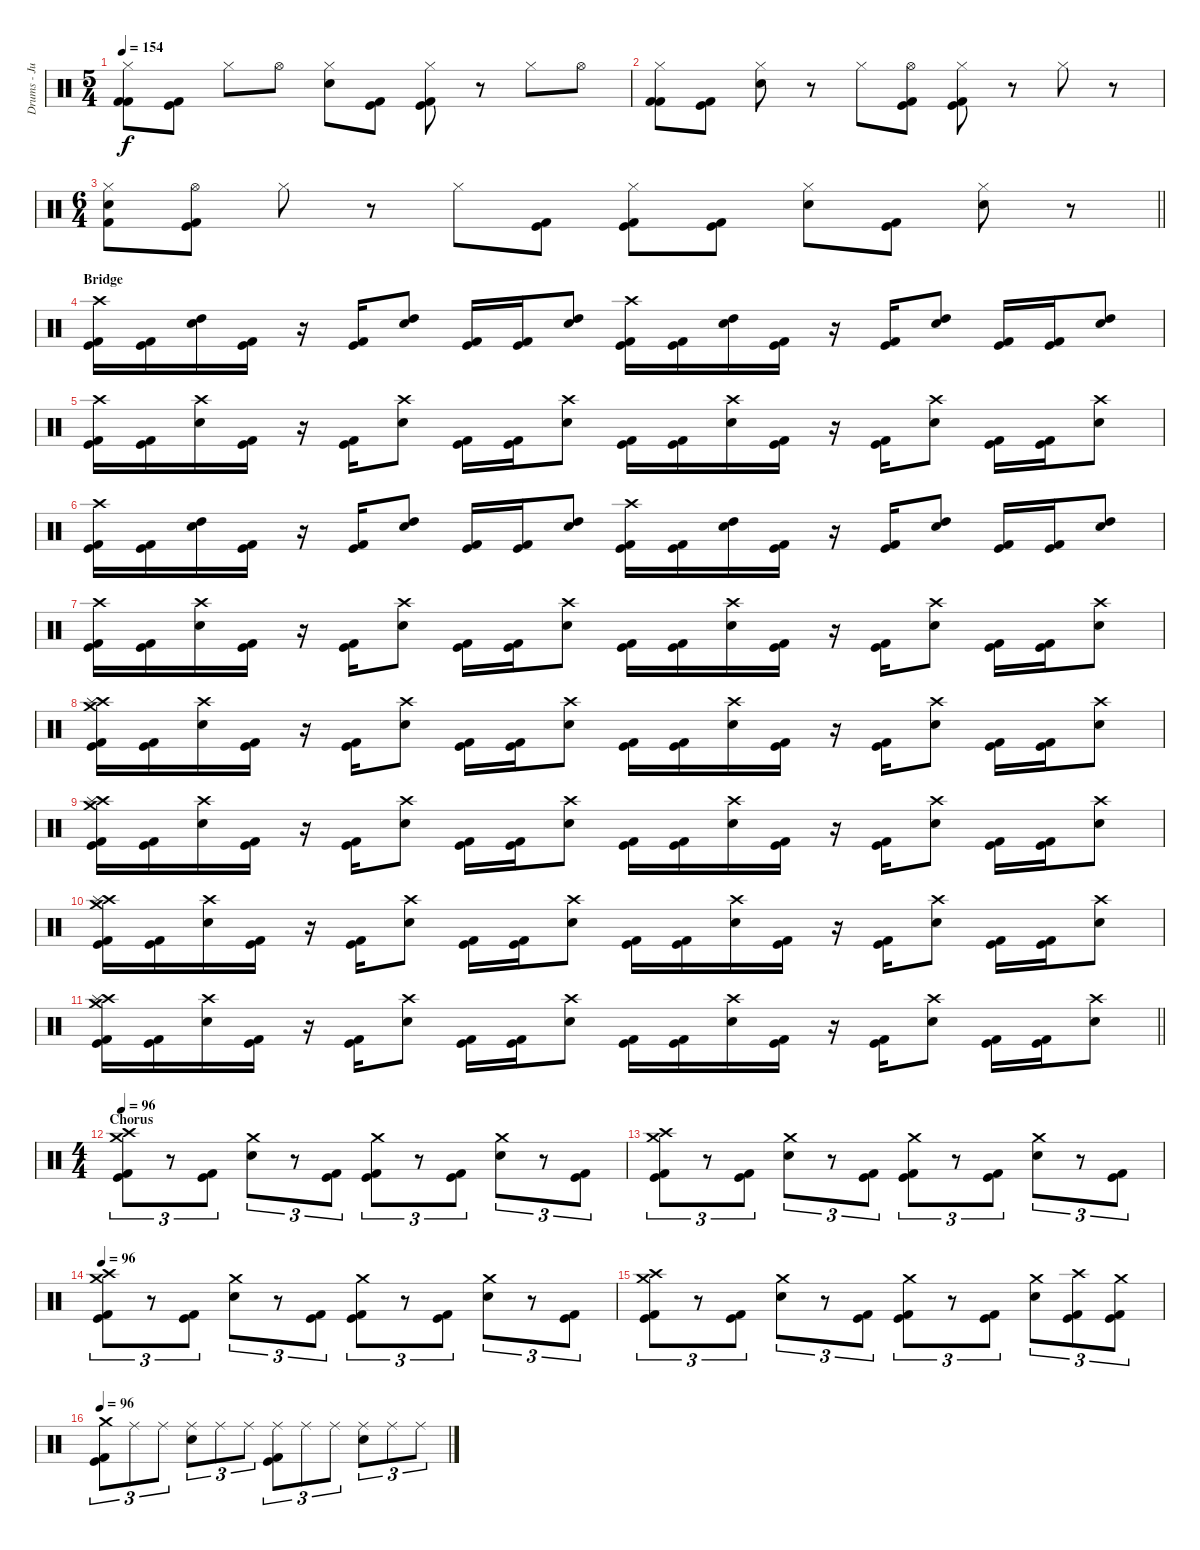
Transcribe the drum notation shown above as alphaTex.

\track ("Drums - Justin Foley" "Drums - Ju") {instrument percussion}
\staff {score}
\articulation defaults
\ts (5 4)
\tempo 154
\clef neutral
\ks c
("Hi-Hat (closed)" "Kick (hit) 2" "Kick (hit) 2").8{dy f} ("Kick (hit) 2" "Kick (hit)").8 "Hi-Hat (closed)".8 "Hi-Hat (open)".8 ("Hi-Hat (closed)" "Snare (hit) 2").8 ("Kick (hit) 2" "Kick (hit)").8 ("Hi-Hat (closed)" "Kick (hit) 2" "Kick (hit)").8 r.8 "Hi-Hat (closed)".8 "Hi-Hat (open)".8 |
("Hi-Hat (closed)" "Kick (hit) 2" "Kick (hit) 2").8 ("Kick (hit) 2" "Kick (hit)").8 ("Hi-Hat (closed)" "Snare (hit) 2").8 r.8 "Hi-Hat (closed)".8 ("Hi-Hat (open)" "Kick (hit) 2" "Kick (hit)").8 ("Hi-Hat (closed)" "Kick (hit) 2" "Kick (hit)").8 r.8 "Hi-Hat (closed)".8 r.8 |
\ts (6 4)
\barLineRight lightlight
("Hi-Hat (closed)" "Snare (hit) 2" "Kick (hit) 2").8 ("Hi-Hat (open)" "Kick (hit) 2" "Kick (hit)").8 "Hi-Hat (closed)".8 r.8 "Hi-Hat (closed)".8 ("Kick (hit) 2" "Kick (hit)").8 ("Hi-Hat (closed)" "Kick (hit) 2" "Kick (hit)").8 ("Kick (hit) 2" "Kick (hit)").8 ("Hi-Hat (closed)" "Snare (hit) 2").8 ("Kick (hit) 2" "Kick (hit)").8 ("Hi-Hat (closed)" "Snare (hit) 2").8 r.8 |
\section ("" "Bridge")
("Crash high (hit)" "Kick (hit) 2" "Kick (hit)").16 ("Kick (hit) 2" "Kick (hit)").16 ("Snare (hit) 2" "High Tom (hit)").16{bd 60} ("Kick (hit) 2" "Kick (hit)").16 r.16 ("Kick (hit) 2" "Kick (hit)").16 ("Snare (hit) 2" "High Tom (hit)").8{bu 60} ("Kick (hit) 2" "Kick (hit)").16 ("Kick (hit) 2" "Kick (hit)").16 ("Snare (hit) 2" "High Tom (hit)").8{bd 60} ("Crash high (hit)" "Kick (hit) 2" "Kick (hit)").16 ("Kick (hit) 2" "Kick (hit)").16 ("Snare (hit) 2" "High Tom (hit)").16{bu 60} ("Kick (hit) 2" "Kick (hit)").16 r.16 ("Kick (hit) 2" "Kick (hit)").16 ("Snare (hit) 2" "High Tom (hit)").8{bd 60} ("Kick (hit) 2" "Kick (hit)").16 ("Kick (hit) 2" "Kick (hit)").16 ("Snare (hit) 2" "High Tom (hit)").8{bu 60} |
("Crash high (hit)" "Kick (hit) 2" "Kick (hit)").16 ("Kick (hit) 2" "Kick (hit)").16 ("Crash high (hit)" "Snare (hit) 2").16 ("Kick (hit) 2" "Kick (hit)").16 r.16 ("Kick (hit) 2" "Kick (hit)").16 ("Crash high (hit)" "Snare (hit) 2").8 ("Kick (hit) 2" "Kick (hit)").16 ("Kick (hit) 2" "Kick (hit)").16 ("Crash high (hit)" "Snare (hit) 2").8 ("Kick (hit) 2" "Kick (hit)").16 ("Kick (hit) 2" "Kick (hit)").16 ("Crash high (hit)" "Snare (hit) 2").16 ("Kick (hit) 2" "Kick (hit)").16 r.16 ("Kick (hit) 2" "Kick (hit)").16 ("Crash high (hit)" "Snare (hit) 2").8 ("Kick (hit) 2" "Kick (hit)").16 ("Kick (hit) 2" "Kick (hit)").16 ("Crash high (hit)" "Snare (hit) 2").8 |
("Crash high (hit)" "Kick (hit) 2" "Kick (hit)").16 ("Kick (hit) 2" "Kick (hit)").16 ("Snare (hit) 2" "High Tom (hit)").16{bd 60} ("Kick (hit) 2" "Kick (hit)").16 r.16 ("Kick (hit) 2" "Kick (hit)").16 ("Snare (hit) 2" "High Tom (hit)").8{bu 60} ("Kick (hit) 2" "Kick (hit)").16 ("Kick (hit) 2" "Kick (hit)").16 ("Snare (hit) 2" "High Tom (hit)").8{bd 60} ("Crash high (hit)" "Kick (hit) 2" "Kick (hit)").16 ("Kick (hit) 2" "Kick (hit)").16 ("Snare (hit) 2" "High Tom (hit)").16{bu 60} ("Kick (hit) 2" "Kick (hit)").16 r.16 ("Kick (hit) 2" "Kick (hit)").16 ("Snare (hit) 2" "High Tom (hit)").8{bd 60} ("Kick (hit) 2" "Kick (hit)").16 ("Kick (hit) 2" "Kick (hit)").16 ("Snare (hit) 2" "High Tom (hit)").8{bu 60} |
("Crash high (hit)" "Kick (hit) 2" "Kick (hit)").16 ("Kick (hit) 2" "Kick (hit)").16 ("Crash high (hit)" "Snare (hit) 2").16 ("Kick (hit) 2" "Kick (hit)").16 r.16 ("Kick (hit) 2" "Kick (hit)").16 ("Crash high (hit)" "Snare (hit) 2").8 ("Kick (hit) 2" "Kick (hit)").16 ("Kick (hit) 2" "Kick (hit)").16 ("Crash high (hit)" "Snare (hit) 2").8 ("Kick (hit) 2" "Kick (hit)").16 ("Kick (hit) 2" "Kick (hit)").16 ("Crash high (hit)" "Snare (hit) 2").16 ("Kick (hit) 2" "Kick (hit)").16 r.16 ("Kick (hit) 2" "Kick (hit)").16 ("Crash high (hit)" "Snare (hit) 2").8 ("Kick (hit) 2" "Kick (hit)").16 ("Kick (hit) 2" "Kick (hit)").16 ("Crash high (hit)" "Snare (hit) 2").8 |
("Crash high (hit)" "Kick (hit) 2" "Kick (hit)" "Crash medium (hit)" "Splash (hit)").16 ("Kick (hit) 2" "Kick (hit)").16 ("Crash high (hit)" "Snare (hit) 2").16 ("Kick (hit) 2" "Kick (hit)").16 r.16 ("Kick (hit) 2" "Kick (hit)").16 ("Crash high (hit)" "Snare (hit) 2").8 ("Kick (hit) 2" "Kick (hit)").16 ("Kick (hit) 2" "Kick (hit)").16 ("Crash high (hit)" "Snare (hit) 2").8 ("Kick (hit) 2" "Kick (hit)").16 ("Kick (hit) 2" "Kick (hit)").16 ("Crash high (hit)" "Snare (hit) 2").16 ("Kick (hit) 2" "Kick (hit)").16 r.16 ("Kick (hit) 2" "Kick (hit)").16 ("Crash high (hit)" "Snare (hit) 2").8 ("Kick (hit) 2" "Kick (hit)").16 ("Kick (hit) 2" "Kick (hit)").16 ("Crash high (hit)" "Snare (hit) 2").8 |
("Crash high (hit)" "Kick (hit) 2" "Kick (hit)" "Crash medium (hit)" "Splash (hit)").16 ("Kick (hit) 2" "Kick (hit)").16 ("Crash high (hit)" "Snare (hit) 2").16 ("Kick (hit) 2" "Kick (hit)").16 r.16 ("Kick (hit) 2" "Kick (hit)").16 ("Crash high (hit)" "Snare (hit) 2").8 ("Kick (hit) 2" "Kick (hit)").16 ("Kick (hit) 2" "Kick (hit)").16 ("Crash high (hit)" "Snare (hit) 2").8 ("Kick (hit) 2" "Kick (hit)").16 ("Kick (hit) 2" "Kick (hit)").16 ("Crash high (hit)" "Snare (hit) 2").16 ("Kick (hit) 2" "Kick (hit)").16 r.16 ("Kick (hit) 2" "Kick (hit)").16 ("Crash high (hit)" "Snare (hit) 2").8 ("Kick (hit) 2" "Kick (hit)").16 ("Kick (hit) 2" "Kick (hit)").16 ("Crash high (hit)" "Snare (hit) 2").8 |
("Crash high (hit)" "Kick (hit) 2" "Kick (hit)" "Crash medium (hit)" "Splash (hit)").16 ("Kick (hit) 2" "Kick (hit)").16 ("Crash high (hit)" "Snare (hit) 2").16 ("Kick (hit) 2" "Kick (hit)").16 r.16 ("Kick (hit) 2" "Kick (hit)").16 ("Crash high (hit)" "Snare (hit) 2").8 ("Kick (hit) 2" "Kick (hit)").16 ("Kick (hit) 2" "Kick (hit)").16 ("Crash high (hit)" "Snare (hit) 2").8 ("Kick (hit) 2" "Kick (hit)").16 ("Kick (hit) 2" "Kick (hit)").16 ("Crash high (hit)" "Snare (hit) 2").16 ("Kick (hit) 2" "Kick (hit)").16 r.16 ("Kick (hit) 2" "Kick (hit)").16 ("Crash high (hit)" "Snare (hit) 2").8 ("Kick (hit) 2" "Kick (hit)").16 ("Kick (hit) 2" "Kick (hit)").16 ("Crash high (hit)" "Snare (hit) 2").8 |
\barLineRight lightlight
("Crash high (hit)" "Kick (hit) 2" "Kick (hit)" "Crash medium (hit)" "Splash (hit)").16 ("Kick (hit) 2" "Kick (hit)").16 ("Crash high (hit)" "Snare (hit) 2").16 ("Kick (hit) 2" "Kick (hit)").16 r.16 ("Kick (hit) 2" "Kick (hit)").16 ("Crash high (hit)" "Snare (hit) 2").8 ("Kick (hit) 2" "Kick (hit)").16 ("Kick (hit) 2" "Kick (hit)").16 ("Crash high (hit)" "Snare (hit) 2").8 ("Kick (hit) 2" "Kick (hit)").16 ("Kick (hit) 2" "Kick (hit)").16 ("Crash high (hit)" "Snare (hit) 2").16 ("Kick (hit) 2" "Kick (hit)").16 r.16 ("Kick (hit) 2" "Kick (hit)").16 ("Crash high (hit)" "Snare (hit) 2").8 ("Kick (hit) 2" "Kick (hit)").16 ("Kick (hit) 2" "Kick (hit)").16 ("Crash high (hit)" "Snare (hit) 2").8 |
\ts (4 4)
\section ("" "Chorus")
\tempo 96
("Crash medium (hit)" "Kick (hit) 2" "Kick (hit)" "Crash high (hit)").8{tu (3 2)} r.8{tu (3 2)} ("Kick (hit) 2" "Kick (hit)").8{tu (3 2)} ("Crash medium (hit)" "Snare (hit) 2").8{tu (3 2)} r.8{tu (3 2)} ("Kick (hit) 2" "Kick (hit)").8{tu (3 2)} ("Crash medium (hit)" "Kick (hit) 2" "Kick (hit)").8{tu (3 2)} r.8{tu (3 2)} ("Kick (hit) 2" "Kick (hit)").8{tu (3 2)} ("Crash medium (hit)" "Snare (hit) 2").8{tu (3 2)} r.8{tu (3 2)} ("Kick (hit) 2" "Kick (hit)").8{tu (3 2)} |
("Crash medium (hit)" "Kick (hit) 2" "Kick (hit)" "Crash high (hit)").8{tu (3 2)} r.8{tu (3 2)} ("Kick (hit) 2" "Kick (hit)").8{tu (3 2)} ("Crash medium (hit)" "Snare (hit) 2").8{tu (3 2)} r.8{tu (3 2)} ("Kick (hit) 2" "Kick (hit)").8{tu (3 2)} ("Crash medium (hit)" "Kick (hit) 2" "Kick (hit)").8{tu (3 2)} r.8{tu (3 2)} ("Kick (hit) 2" "Kick (hit)").8{tu (3 2)} ("Crash medium (hit)" "Snare (hit) 2").8{tu (3 2)} r.8{tu (3 2)} ("Kick (hit) 2" "Kick (hit)").8{tu (3 2)} |
\tempo 96
("Crash medium (hit)" "Kick (hit) 2" "Kick (hit)" "Crash high (hit)").8{tu (3 2)} r.8{tu (3 2)} ("Kick (hit) 2" "Kick (hit)").8{tu (3 2)} ("Crash medium (hit)" "Snare (hit) 2").8{tu (3 2)} r.8{tu (3 2)} ("Kick (hit) 2" "Kick (hit)").8{tu (3 2)} ("Crash medium (hit)" "Kick (hit) 2" "Kick (hit)").8{tu (3 2)} r.8{tu (3 2)} ("Kick (hit) 2" "Kick (hit)").8{tu (3 2)} ("Crash medium (hit)" "Snare (hit) 2").8{tu (3 2)} r.8{tu (3 2)} ("Kick (hit) 2" "Kick (hit)").8{tu (3 2)} |
("Crash medium (hit)" "Kick (hit) 2" "Kick (hit)" "Crash high (hit)").8{tu (3 2)} r.8{tu (3 2)} ("Kick (hit) 2" "Kick (hit)").8{tu (3 2)} ("Crash medium (hit)" "Snare (hit) 2").8{tu (3 2)} r.8{tu (3 2)} ("Kick (hit) 2" "Kick (hit)").8{tu (3 2)} ("Crash medium (hit)" "Kick (hit) 2" "Kick (hit)").8{tu (3 2)} r.8{tu (3 2)} ("Kick (hit) 2" "Kick (hit)").8{tu (3 2)} ("Crash medium (hit)" "Snare (hit) 2").8{tu (3 2)} ("Crash high (hit)" "Kick (hit) 2" "Kick (hit)").8{tu (3 2)} ("Crash medium (hit)" "Kick (hit) 2" "Kick (hit)").8{tu (3 2)} |
\tempo 96
("Crash medium (hit)" "Kick (hit) 2" "Kick (hit)").8{tu (3 2)} "Ride (middle)".8{tu (3 2)} "Ride (middle)".8{tu (3 2)} ("Ride (middle)" "Snare (hit) 2").8{tu (3 2)} "Ride (middle)".8{tu (3 2)} "Ride (middle)".8{tu (3 2)} ("Ride (middle)" "Kick (hit) 2" "Kick (hit)").8{tu (3 2)} "Ride (middle)".8{tu (3 2)} "Ride (middle)".8{tu (3 2)} ("Ride (middle)" "Snare (hit) 2").8{tu (3 2)} "Ride (middle)".8{tu (3 2)} "Ride (middle)".8{tu (3 2)}
